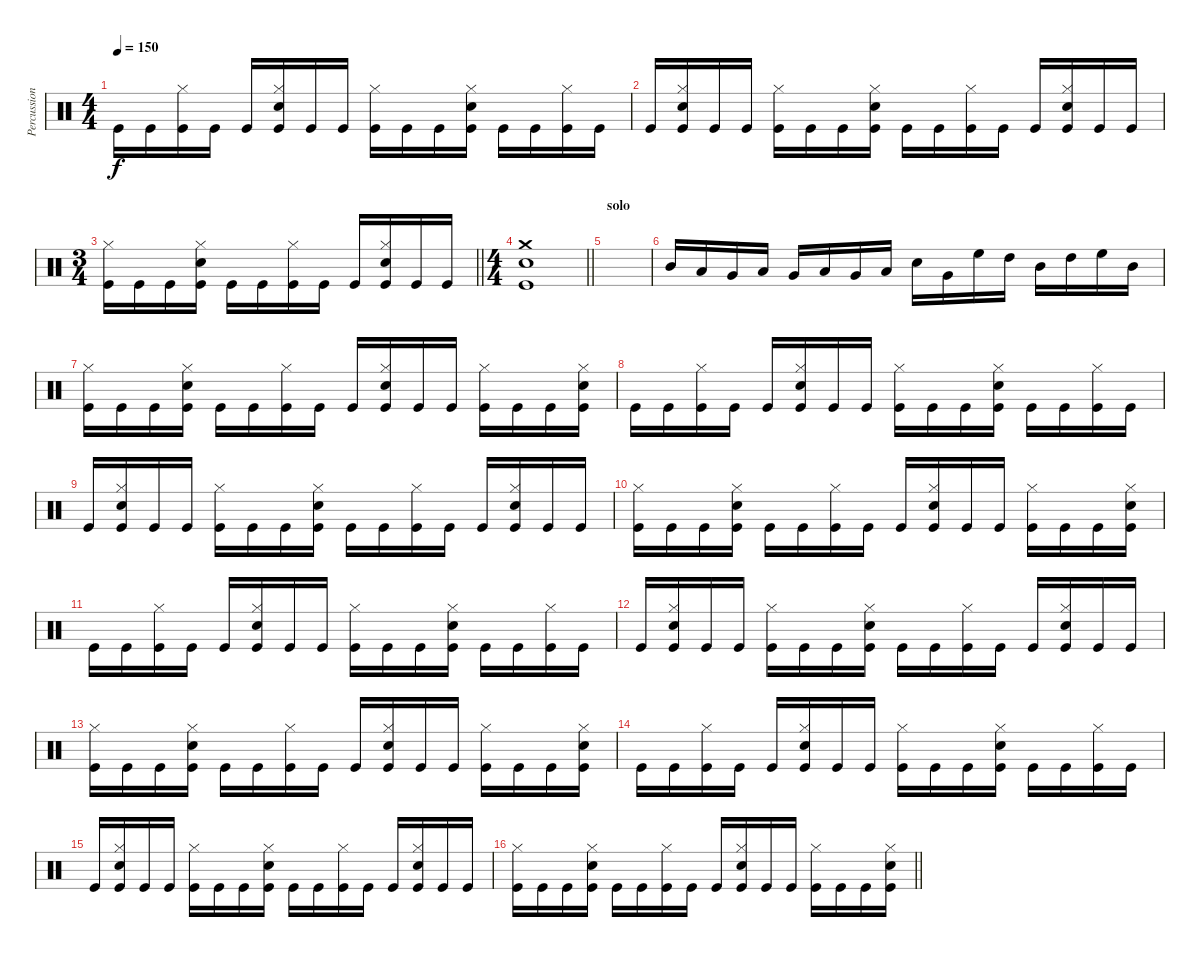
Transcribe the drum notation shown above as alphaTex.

\track ("Percussion" "Percussion") {instrument percussion}
\staff {score}
\articulation defaults
\ts (4 4)
\tempo 150
\clef neutral
\ks c "Kick (hit)".16{dy f} "Kick (hit)".16
("Hi-Hat (closed)" "Kick (hit)").16 "Kick (hit)".16 "Kick (hit)".16 ("Hi-Hat (closed)" "Kick (hit)" "Snare (hit) 2").16 "Kick (hit)".16 "Kick (hit)".16 ("Hi-Hat (closed)" "Kick (hit)").16 "Kick (hit)".16 "Kick (hit)".16 ("Hi-Hat (closed)" "Kick (hit)" "Snare (hit) 2").16 "Kick (hit)".16 "Kick (hit)".16 ("Hi-Hat (closed)" "Kick (hit)").16 "Kick (hit)".16 |
"Kick (hit)".16 ("Hi-Hat (closed)" "Kick (hit)" "Snare (hit) 2").16 "Kick (hit)".16 "Kick (hit)".16 ("Hi-Hat (closed)" "Kick (hit)").16 "Kick (hit)".16 "Kick (hit)".16 ("Hi-Hat (closed)" "Kick (hit)" "Snare (hit) 2").16 "Kick (hit)".16 "Kick (hit)".16 ("Hi-Hat (closed)" "Kick (hit)").16 "Kick (hit)".16 "Kick (hit)".16 ("Hi-Hat (closed)" "Kick (hit)" "Snare (hit) 2").16 "Kick (hit)".16 "Kick (hit)".16 |
\ts (3 4)
\barLineRight lightlight
("Hi-Hat (closed)" "Kick (hit)").16 "Kick (hit)".16 "Kick (hit)".16 ("Hi-Hat (closed)" "Kick (hit)" "Snare (hit) 2").16 "Kick (hit)".16 "Kick (hit)".16 ("Hi-Hat (closed)" "Kick (hit)").16 "Kick (hit)".16 "Kick (hit)".16 ("Hi-Hat (closed)" "Kick (hit)" "Snare (hit) 2").16 "Kick (hit)".16 "Kick (hit)".16 |
\ts (4 4)
\barLineRight lightlight
("Kick (hit)" "Snare (hit) 2" "Crash medium (hit)").1 |
\section ("" "solo")
|
"Mid Tom (hit)".16 "Low Tom (hit)".16 "Very Low Tom (hit)".16 "Low Tom (hit)".16 "Very Low Tom (hit)".16 "Low Floor Tom (hit)".16 "Very Low Tom (hit)".16 "Low Floor Tom (hit)".16 "Snare (hit) 2".16 "Very Low Tom (hit)".16 "High Floor Tom (hit)".16 "High Tom (hit)".16 "Mid Tom (hit)".16 "High Tom (hit)".16 "High Floor Tom (hit)".16 "Mid Tom (hit)".16 |
("Hi-Hat (closed)" "Kick (hit)").16 "Kick (hit)".16 "Kick (hit)".16 ("Hi-Hat (closed)" "Kick (hit)" "Snare (hit) 2").16 "Kick (hit)".16 "Kick (hit)".16 ("Hi-Hat (closed)" "Kick (hit)").16 "Kick (hit)".16 "Kick (hit)".16 ("Hi-Hat (closed)" "Kick (hit)" "Snare (hit) 2").16 "Kick (hit)".16 "Kick (hit)".16 ("Hi-Hat (closed)" "Kick (hit)").16 "Kick (hit)".16 "Kick (hit)".16 ("Hi-Hat (closed)" "Kick (hit)" "Snare (hit) 2").16 |
"Kick (hit)".16 "Kick (hit)".16 ("Hi-Hat (closed)" "Kick (hit)").16 "Kick (hit)".16 "Kick (hit)".16 ("Hi-Hat (closed)" "Kick (hit)" "Snare (hit) 2").16 "Kick (hit)".16 "Kick (hit)".16 ("Hi-Hat (closed)" "Kick (hit)").16 "Kick (hit)".16 "Kick (hit)".16 ("Hi-Hat (closed)" "Kick (hit)" "Snare (hit) 2").16 "Kick (hit)".16 "Kick (hit)".16 ("Hi-Hat (closed)" "Kick (hit)").16 "Kick (hit)".16 |
"Kick (hit)".16 ("Hi-Hat (closed)" "Kick (hit)" "Snare (hit) 2").16 "Kick (hit)".16 "Kick (hit)".16 ("Hi-Hat (closed)" "Kick (hit)").16 "Kick (hit)".16 "Kick (hit)".16 ("Hi-Hat (closed)" "Kick (hit)" "Snare (hit) 2").16 "Kick (hit)".16 "Kick (hit)".16 ("Hi-Hat (closed)" "Kick (hit)").16 "Kick (hit)".16 "Kick (hit)".16 ("Hi-Hat (closed)" "Kick (hit)" "Snare (hit) 2").16 "Kick (hit)".16 "Kick (hit)".16 |
("Hi-Hat (closed)" "Kick (hit)").16 "Kick (hit)".16 "Kick (hit)".16 ("Hi-Hat (closed)" "Kick (hit)" "Snare (hit) 2").16 "Kick (hit)".16 "Kick (hit)".16 ("Hi-Hat (closed)" "Kick (hit)").16 "Kick (hit)".16 "Kick (hit)".16 ("Hi-Hat (closed)" "Kick (hit)" "Snare (hit) 2").16 "Kick (hit)".16 "Kick (hit)".16 ("Hi-Hat (closed)" "Kick (hit)").16 "Kick (hit)".16 "Kick (hit)".16 ("Hi-Hat (closed)" "Kick (hit)" "Snare (hit) 2").16 |
"Kick (hit)".16 "Kick (hit)".16 ("Hi-Hat (closed)" "Kick (hit)").16 "Kick (hit)".16 "Kick (hit)".16 ("Hi-Hat (closed)" "Kick (hit)" "Snare (hit) 2").16 "Kick (hit)".16 "Kick (hit)".16 ("Hi-Hat (closed)" "Kick (hit)").16 "Kick (hit)".16 "Kick (hit)".16 ("Hi-Hat (closed)" "Kick (hit)" "Snare (hit) 2").16 "Kick (hit)".16 "Kick (hit)".16 ("Hi-Hat (closed)" "Kick (hit)").16 "Kick (hit)".16 |
"Kick (hit)".16 ("Hi-Hat (closed)" "Kick (hit)" "Snare (hit) 2").16 "Kick (hit)".16 "Kick (hit)".16 ("Hi-Hat (closed)" "Kick (hit)").16 "Kick (hit)".16 "Kick (hit)".16 ("Hi-Hat (closed)" "Kick (hit)" "Snare (hit) 2").16 "Kick (hit)".16 "Kick (hit)".16 ("Hi-Hat (closed)" "Kick (hit)").16 "Kick (hit)".16 "Kick (hit)".16 ("Hi-Hat (closed)" "Kick (hit)" "Snare (hit) 2").16 "Kick (hit)".16 "Kick (hit)".16 |
("Hi-Hat (closed)" "Kick (hit)").16 "Kick (hit)".16 "Kick (hit)".16 ("Hi-Hat (closed)" "Kick (hit)" "Snare (hit) 2").16 "Kick (hit)".16 "Kick (hit)".16 ("Hi-Hat (closed)" "Kick (hit)").16 "Kick (hit)".16 "Kick (hit)".16 ("Hi-Hat (closed)" "Kick (hit)" "Snare (hit) 2").16 "Kick (hit)".16 "Kick (hit)".16 ("Hi-Hat (closed)" "Kick (hit)").16 "Kick (hit)".16 "Kick (hit)".16 ("Hi-Hat (closed)" "Kick (hit)" "Snare (hit) 2").16 |
"Kick (hit)".16 "Kick (hit)".16 ("Hi-Hat (closed)" "Kick (hit)").16 "Kick (hit)".16 "Kick (hit)".16 ("Hi-Hat (closed)" "Kick (hit)" "Snare (hit) 2").16 "Kick (hit)".16 "Kick (hit)".16 ("Hi-Hat (closed)" "Kick (hit)").16 "Kick (hit)".16 "Kick (hit)".16 ("Hi-Hat (closed)" "Kick (hit)" "Snare (hit) 2").16 "Kick (hit)".16 "Kick (hit)".16 ("Hi-Hat (closed)" "Kick (hit)").16 "Kick (hit)".16 |
"Kick (hit)".16 ("Hi-Hat (closed)" "Kick (hit)" "Snare (hit) 2").16 "Kick (hit)".16 "Kick (hit)".16 ("Hi-Hat (closed)" "Kick (hit)").16 "Kick (hit)".16 "Kick (hit)".16 ("Hi-Hat (closed)" "Kick (hit)" "Snare (hit) 2").16 "Kick (hit)".16 "Kick (hit)".16 ("Hi-Hat (closed)" "Kick (hit)").16 "Kick (hit)".16 "Kick (hit)".16 ("Hi-Hat (closed)" "Kick (hit)" "Snare (hit) 2").16 "Kick (hit)".16 "Kick (hit)".16 |
\barLineRight lightlight
("Hi-Hat (closed)" "Kick (hit)").16 "Kick (hit)".16 "Kick (hit)".16 ("Hi-Hat (closed)" "Kick (hit)" "Snare (hit) 2").16 "Kick (hit)".16 "Kick (hit)".16 ("Hi-Hat (closed)" "Kick (hit)").16 "Kick (hit)".16 "Kick (hit)".16 ("Hi-Hat (closed)" "Kick (hit)" "Snare (hit) 2").16 "Kick (hit)".16 "Kick (hit)".16 ("Hi-Hat (closed)" "Kick (hit)").16 "Kick (hit)".16 "Kick (hit)".16 ("Hi-Hat (closed)" "Kick (hit)" "Snare (hit) 2").16
